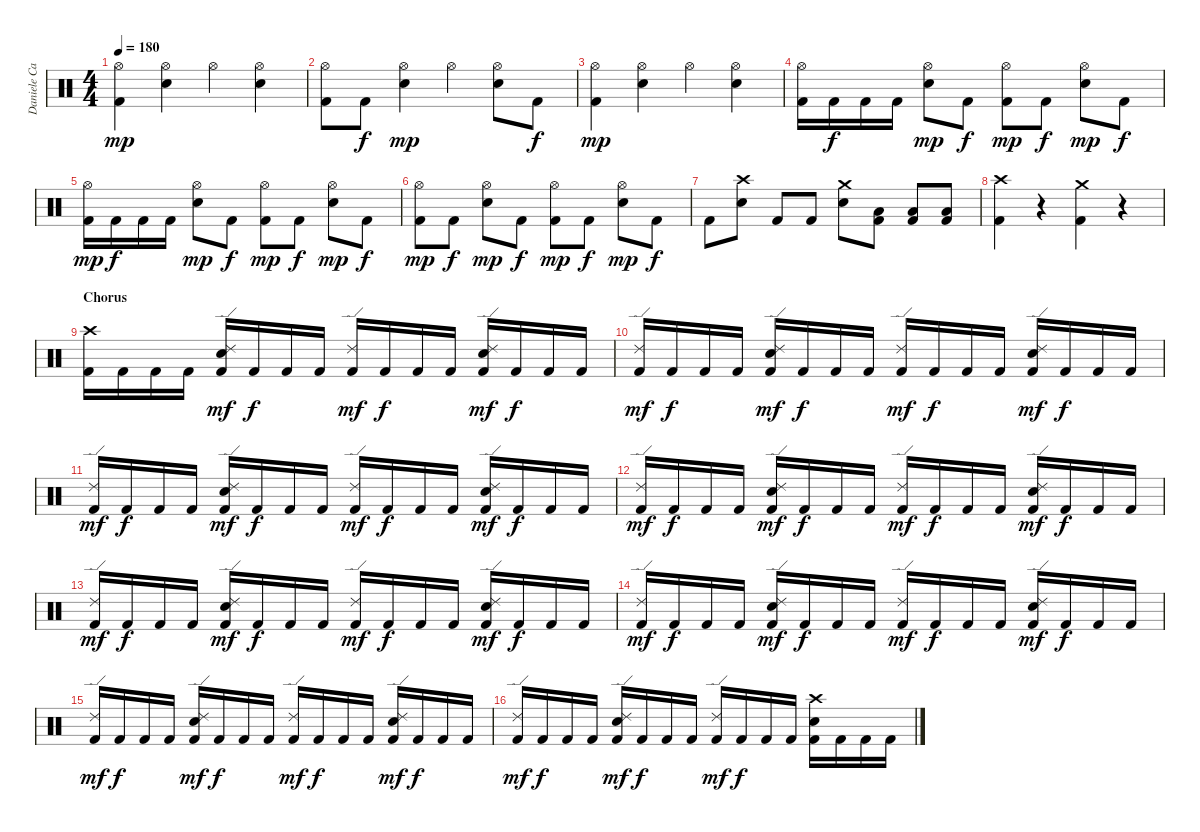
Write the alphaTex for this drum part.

\track ("Daniele Carbonera" "Daniele Ca") {instrument percussion}
\staff {score}
\articulation defaults
\ts (4 4)
\tempo 180
\clef neutral
\ks c
("Kick (hit) 2" "Hi-Hat (open)").4{dy mp} ("Hi-Hat (open)" "Snare (hit) 2").4 "Hi-Hat (open)".4 ("Hi-Hat (open)" "Snare (hit) 2").4 |
("Kick (hit) 2" "Hi-Hat (open)").8 "Kick (hit) 2".8{dy f} ("Hi-Hat (open)" "Snare (hit) 2").4{dy mp} "Hi-Hat (open)".4 ("Hi-Hat (open)" "Snare (hit) 2").8 "Kick (hit) 2".8{dy f} |
("Kick (hit) 2" "Hi-Hat (open)").4{dy mp} ("Hi-Hat (open)" "Snare (hit) 2").4 "Hi-Hat (open)".4 ("Hi-Hat (open)" "Snare (hit) 2").4 |
("Kick (hit) 2" "Hi-Hat (open)").16 "Kick (hit) 2".16{dy f} "Kick (hit) 2".16 "Kick (hit) 2".16 ("Hi-Hat (open)" "Snare (hit) 2").8{dy mp} "Kick (hit) 2".8{dy f} ("Kick (hit) 2" "Hi-Hat (open)").8{dy mp} "Kick (hit) 2".8{dy f} ("Hi-Hat (open)" "Snare (hit) 2").8{dy mp} "Kick (hit) 2".8{dy f} |
("Kick (hit) 2" "Hi-Hat (open)").16{dy mp} "Kick (hit) 2".16{dy f} "Kick (hit) 2".16 "Kick (hit) 2".16 ("Hi-Hat (open)" "Snare (hit) 2").8{dy mp} "Kick (hit) 2".8{dy f} ("Kick (hit) 2" "Hi-Hat (open)").8{dy mp} "Kick (hit) 2".8{dy f} ("Hi-Hat (open)" "Snare (hit) 2").8{dy mp} "Kick (hit) 2".8{dy f} |
("Kick (hit) 2" "Hi-Hat (open)").8{dy mp} "Kick (hit) 2".8{dy f} ("Hi-Hat (open)" "Snare (hit) 2").8{dy mp} "Kick (hit) 2".8{dy f} ("Kick (hit) 2" "Hi-Hat (open)").8{dy mp} "Kick (hit) 2".8{dy f} ("Hi-Hat (open)" "Snare (hit) 2").8{dy mp} "Kick (hit) 2".8{dy f} |
"Kick (hit) 2".8 ("Crash high (hit)" "Snare (hit) 2").8 "Kick (hit) 2".8 "Kick (hit) 2".8 ("Crash medium (hit)" "Snare (hit) 2").8 ("Kick (hit) 2" "Low Tom (hit)").8 ("Kick (hit) 2" "Low Tom (hit)").8 ("Kick (hit) 2" "Low Tom (hit)").8 |
("Kick (hit) 2" "Crash high (hit)").4 r.4 ("Kick (hit) 2" "Crash medium (hit)").4 r.4 |
\section ("" "Chorus")
("Kick (hit) 2" "Crash high (hit)").16 "Kick (hit) 2".16 "Kick (hit) 2".16 "Kick (hit) 2".16 ("Kick (hit) 2" "Ride (edge) 2" "Snare (hit) 2").16{dy mf} "Kick (hit) 2".16{dy f} "Kick (hit) 2".16 "Kick (hit) 2".16 ("Kick (hit) 2" "Ride (edge) 2").16{dy mf} "Kick (hit) 2".16{dy f} "Kick (hit) 2".16 "Kick (hit) 2".16 ("Kick (hit) 2" "Ride (edge) 2" "Snare (hit) 2").16{dy mf} "Kick (hit) 2".16{dy f} "Kick (hit) 2".16 "Kick (hit) 2".16 |
("Kick (hit) 2" "Ride (edge) 2").16{dy mf} "Kick (hit) 2".16{dy f} "Kick (hit) 2".16 "Kick (hit) 2".16 ("Kick (hit) 2" "Ride (edge) 2" "Snare (hit) 2").16{dy mf} "Kick (hit) 2".16{dy f} "Kick (hit) 2".16 "Kick (hit) 2".16 ("Kick (hit) 2" "Ride (edge) 2").16{dy mf} "Kick (hit) 2".16{dy f} "Kick (hit) 2".16 "Kick (hit) 2".16 ("Kick (hit) 2" "Ride (edge) 2" "Snare (hit) 2").16{dy mf} "Kick (hit) 2".16{dy f} "Kick (hit) 2".16 "Kick (hit) 2".16 |
("Kick (hit) 2" "Ride (edge) 2").16{dy mf} "Kick (hit) 2".16{dy f} "Kick (hit) 2".16 "Kick (hit) 2".16 ("Kick (hit) 2" "Ride (edge) 2" "Snare (hit) 2").16{dy mf} "Kick (hit) 2".16{dy f} "Kick (hit) 2".16 "Kick (hit) 2".16 ("Kick (hit) 2" "Ride (edge) 2").16{dy mf} "Kick (hit) 2".16{dy f} "Kick (hit) 2".16 "Kick (hit) 2".16 ("Kick (hit) 2" "Ride (edge) 2" "Snare (hit) 2").16{dy mf} "Kick (hit) 2".16{dy f} "Kick (hit) 2".16 "Kick (hit) 2".16 |
("Kick (hit) 2" "Ride (edge) 2").16{dy mf} "Kick (hit) 2".16{dy f} "Kick (hit) 2".16 "Kick (hit) 2".16 ("Kick (hit) 2" "Ride (edge) 2" "Snare (hit) 2").16{dy mf} "Kick (hit) 2".16{dy f} "Kick (hit) 2".16 "Kick (hit) 2".16 ("Kick (hit) 2" "Ride (edge) 2").16{dy mf} "Kick (hit) 2".16{dy f} "Kick (hit) 2".16 "Kick (hit) 2".16 ("Kick (hit) 2" "Ride (edge) 2" "Snare (hit) 2").16{dy mf} "Kick (hit) 2".16{dy f} "Kick (hit) 2".16 "Kick (hit) 2".16 |
("Kick (hit) 2" "Ride (edge) 2").16{dy mf} "Kick (hit) 2".16{dy f} "Kick (hit) 2".16 "Kick (hit) 2".16 ("Kick (hit) 2" "Ride (edge) 2" "Snare (hit) 2").16{dy mf} "Kick (hit) 2".16{dy f} "Kick (hit) 2".16 "Kick (hit) 2".16 ("Kick (hit) 2" "Ride (edge) 2").16{dy mf} "Kick (hit) 2".16{dy f} "Kick (hit) 2".16 "Kick (hit) 2".16 ("Kick (hit) 2" "Ride (edge) 2" "Snare (hit) 2").16{dy mf} "Kick (hit) 2".16{dy f} "Kick (hit) 2".16 "Kick (hit) 2".16 |
("Kick (hit) 2" "Ride (edge) 2").16{dy mf} "Kick (hit) 2".16{dy f} "Kick (hit) 2".16 "Kick (hit) 2".16 ("Kick (hit) 2" "Ride (edge) 2" "Snare (hit) 2").16{dy mf} "Kick (hit) 2".16{dy f} "Kick (hit) 2".16 "Kick (hit) 2".16 ("Kick (hit) 2" "Ride (edge) 2").16{dy mf} "Kick (hit) 2".16{dy f} "Kick (hit) 2".16 "Kick (hit) 2".16 ("Kick (hit) 2" "Ride (edge) 2" "Snare (hit) 2").16{dy mf} "Kick (hit) 2".16{dy f} "Kick (hit) 2".16 "Kick (hit) 2".16 |
("Kick (hit) 2" "Ride (edge) 2").16{dy mf} "Kick (hit) 2".16{dy f} "Kick (hit) 2".16 "Kick (hit) 2".16 ("Kick (hit) 2" "Ride (edge) 2" "Snare (hit) 2").16{dy mf} "Kick (hit) 2".16{dy f} "Kick (hit) 2".16 "Kick (hit) 2".16 ("Kick (hit) 2" "Ride (edge) 2").16{dy mf} "Kick (hit) 2".16{dy f} "Kick (hit) 2".16 "Kick (hit) 2".16 ("Kick (hit) 2" "Ride (edge) 2" "Snare (hit) 2").16{dy mf} "Kick (hit) 2".16{dy f} "Kick (hit) 2".16 "Kick (hit) 2".16 |
("Kick (hit) 2" "Ride (edge) 2").16{dy mf} "Kick (hit) 2".16{dy f} "Kick (hit) 2".16 "Kick (hit) 2".16 ("Kick (hit) 2" "Ride (edge) 2" "Snare (hit) 2").16{dy mf} "Kick (hit) 2".16{dy f} "Kick (hit) 2".16 "Kick (hit) 2".16 ("Kick (hit) 2" "Ride (edge) 2").16{dy mf} "Kick (hit) 2".16{dy f} "Kick (hit) 2".16 "Kick (hit) 2".16 ("Kick (hit) 2" "Crash high (hit)" "Snare (hit) 2").16 "Kick (hit) 2".16 "Kick (hit) 2".16 "Kick (hit) 2".16
